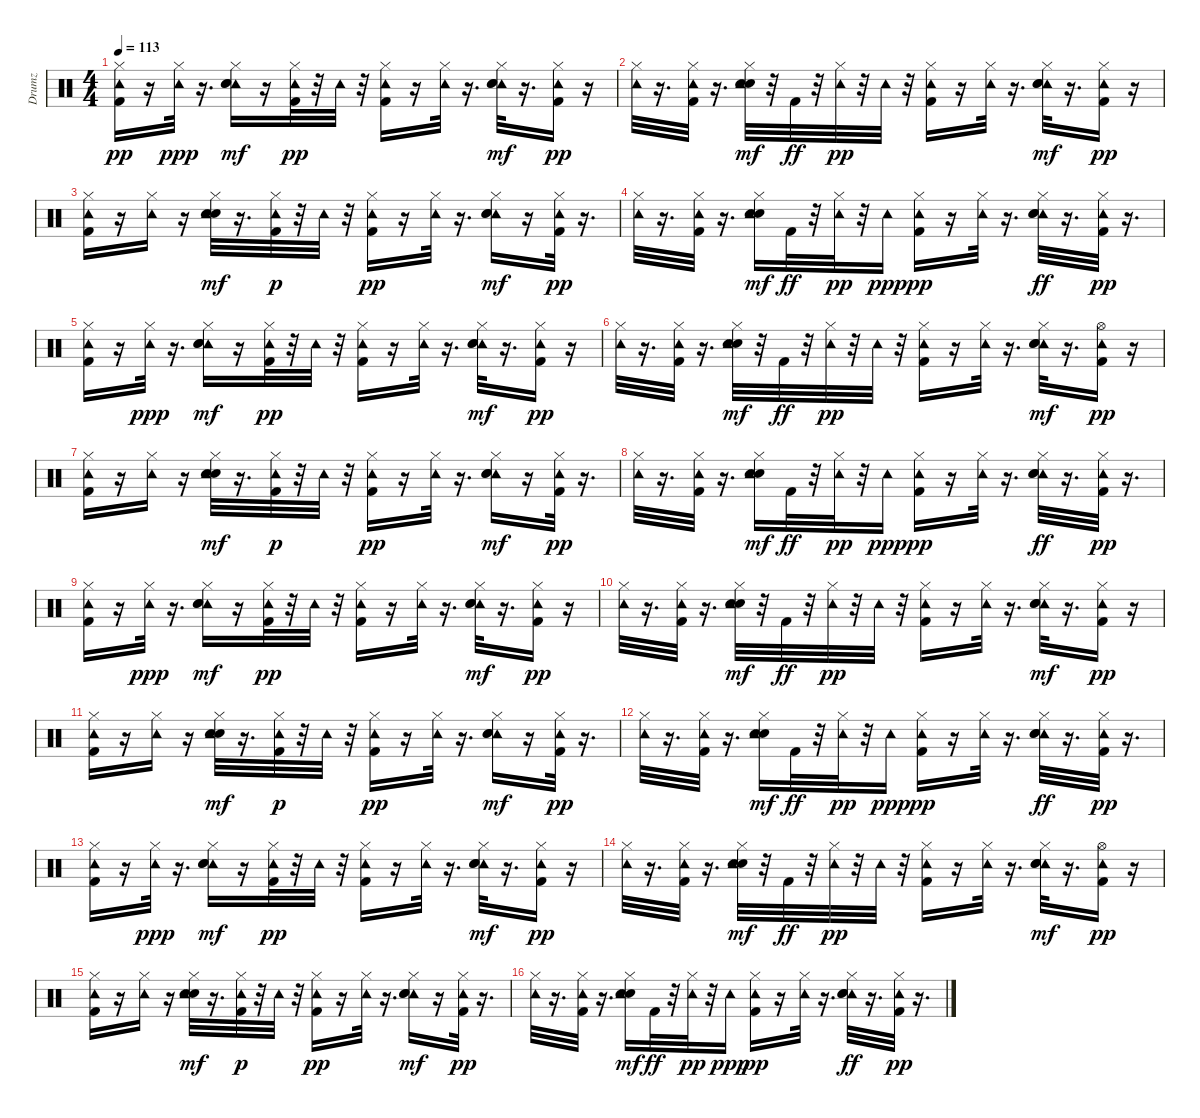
\track ("Drumz" "Drumz") {instrument percussion}
\staff {score}
\articulation defaults
\ts (4 4)
\tempo 113
\clef neutral
\ks c
("Hi-Hat (closed)" "Kick (hit) 2" "Tambourine (hit)").16{dy pp} r.16 ("Hi-Hat (closed)" "Tambourine (hit)").32{dy ppp} r.16{d} ("Tambourine (hit)" "Electric Snare (hit)" "Hi-Hat (closed)" "Hand Clap (hit)").16{dy mf} r.16 ("Kick (hit) 2" "Hi-Hat (closed)" "Tambourine (hit)").32{dy pp} r.32 "Tambourine (hit)".32 r.32 ("Kick (hit) 2" "Hi-Hat (closed)" "Tambourine (hit)").16 r.16 ("Hi-Hat (closed)" "Tambourine (hit)").32 r.16{d} ("Tambourine (hit)" "Electric Snare (hit)" "Hi-Hat (closed)" "Hand Clap (hit)").32{dy mf} r.16{d} ("Hi-Hat (closed)" "Kick (hit) 2" "Tambourine (hit)").16{dy pp} r.16 |
("Hi-Hat (closed)" "Tambourine (hit)").32 r.16{d} ("Kick (hit) 2" "Hi-Hat (closed)" "Tambourine (hit)").32 r.16{d} ("Hand Clap (hit)" "Electric Snare (hit)" "Hi-Hat (closed)" "Tambourine (hit)").32{dy mf} r.32 "Kick (hit) 2".32{dy ff} r.32 ("Hi-Hat (closed)" "Tambourine (hit)").32{dy pp} r.32 "Tambourine (hit)".32 r.32 ("Kick (hit) 2" "Hi-Hat (closed)" "Tambourine (hit)").16 r.16 ("Hi-Hat (closed)" "Tambourine (hit)").32 r.16{d} ("Tambourine (hit)" "Hand Clap (hit)" "Electric Snare (hit)" "Hi-Hat (closed)").32{dy mf} r.16{d} ("Kick (hit) 2" "Hi-Hat (closed)" "Tambourine (hit)").16{dy pp} r.16 |
("Hi-Hat (closed)" "Kick (hit) 2" "Tambourine (hit)").16 r.16 ("Hi-Hat (closed)" "Tambourine (hit)").16 r.16 ("Electric Snare (hit)" "Hand Clap (hit)" "Hi-Hat (closed)" "Tambourine (hit)").32{dy mf} r.16{d} ("Hi-Hat (closed)" "Kick (hit) 2" "Tambourine (hit)").32{dy p} r.32 "Tambourine (hit)".32 r.32 ("Kick (hit) 2" "Hi-Hat (closed)" "Tambourine (hit)").16{dy pp} r.16 ("Hi-Hat (closed)" "Tambourine (hit)").32 r.16{d} ("Tambourine (hit)" "Electric Snare (hit)" "Hi-Hat (closed)" "Hand Clap (hit)").16{dy mf} r.16 ("Hi-Hat (closed)" "Kick (hit) 2" "Tambourine (hit)").32{dy pp} r.16{d} |
("Hi-Hat (closed)" "Tambourine (hit)").32 r.16{d} ("Kick (hit) 2" "Hi-Hat (closed)" "Tambourine (hit)").32 r.16{d} ("Electric Snare (hit)" "Hand Clap (hit)" "Hi-Hat (closed)" "Tambourine (hit)").16{dy mf} "Kick (hit) 2".32{dy ff} r.32 ("Hi-Hat (closed)" "Tambourine (hit)").32{dy pp} r.32 "Tambourine (hit)".16{dy ppp} ("Hi-Hat (closed)" "Kick (hit) 2" "Tambourine (hit)").16{dy pp} r.16 ("Hi-Hat (closed)" "Tambourine (hit)").32 r.16{d} ("Tambourine (hit)" "Hi-Hat (closed)" "Hand Clap (hit)" "Electric Snare (hit)").32{dy ff} r.16{d} ("Hi-Hat (closed)" "Kick (hit) 2" "Tambourine (hit)").32{dy pp} r.16{d} |
("Hi-Hat (closed)" "Kick (hit) 2" "Tambourine (hit)").16 r.16 ("Hi-Hat (closed)" "Tambourine (hit)").32{dy ppp} r.16{d} ("Tambourine (hit)" "Electric Snare (hit)" "Hi-Hat (closed)" "Hand Clap (hit)").16{dy mf} r.16 ("Kick (hit) 2" "Hi-Hat (closed)" "Tambourine (hit)").32{dy pp} r.32 "Tambourine (hit)".32 r.32 ("Kick (hit) 2" "Hi-Hat (closed)" "Tambourine (hit)").16 r.16 ("Hi-Hat (closed)" "Tambourine (hit)").32 r.16{d} ("Tambourine (hit)" "Electric Snare (hit)" "Hi-Hat (closed)" "Hand Clap (hit)").32{dy mf} r.16{d} ("Hi-Hat (closed)" "Kick (hit) 2" "Tambourine (hit)").16{dy pp} r.16 |
("Hi-Hat (closed)" "Tambourine (hit)").32 r.16{d} ("Kick (hit) 2" "Hi-Hat (closed)" "Tambourine (hit)").32 r.16{d} ("Hand Clap (hit)" "Electric Snare (hit)" "Hi-Hat (closed)" "Tambourine (hit)").32{dy mf} r.32 "Kick (hit) 2".32{dy ff} r.32 ("Hi-Hat (closed)" "Tambourine (hit)").32{dy pp} r.32 "Tambourine (hit)".32 r.32 ("Kick (hit) 2" "Hi-Hat (closed)" "Tambourine (hit)").16 r.16 ("Hi-Hat (closed)" "Tambourine (hit)").32 r.16{d} ("Tambourine (hit)" "Hand Clap (hit)" "Electric Snare (hit)" "Hi-Hat (closed)").32{dy mf} r.16{d} ("Hi-Hat (open)" "Kick (hit) 2" "Tambourine (hit)").16{dy pp} r.16 |
("Hi-Hat (closed)" "Kick (hit) 2" "Tambourine (hit)").16 r.16 ("Hi-Hat (closed)" "Tambourine (hit)").16 r.16 ("Electric Snare (hit)" "Hand Clap (hit)" "Hi-Hat (closed)" "Tambourine (hit)").32{dy mf} r.16{d} ("Hi-Hat (closed)" "Kick (hit) 2" "Tambourine (hit)").32{dy p} r.32 "Tambourine (hit)".32 r.32 ("Kick (hit) 2" "Hi-Hat (closed)" "Tambourine (hit)").16{dy pp} r.16 ("Hi-Hat (closed)" "Tambourine (hit)").32 r.16{d} ("Tambourine (hit)" "Electric Snare (hit)" "Hi-Hat (closed)" "Hand Clap (hit)").16{dy mf} r.16 ("Hi-Hat (closed)" "Kick (hit) 2" "Tambourine (hit)").32{dy pp} r.16{d} |
("Hi-Hat (closed)" "Tambourine (hit)").32 r.16{d} ("Kick (hit) 2" "Hi-Hat (closed)" "Tambourine (hit)").32 r.16{d} ("Electric Snare (hit)" "Hand Clap (hit)" "Hi-Hat (closed)" "Tambourine (hit)").16{dy mf} "Kick (hit) 2".32{dy ff} r.32 ("Hi-Hat (closed)" "Tambourine (hit)").32{dy pp} r.32 "Tambourine (hit)".16{dy ppp} ("Hi-Hat (closed)" "Kick (hit) 2" "Tambourine (hit)").16{dy pp} r.16 ("Hi-Hat (closed)" "Tambourine (hit)").32 r.16{d} ("Tambourine (hit)" "Hi-Hat (closed)" "Hand Clap (hit)" "Electric Snare (hit)").32{dy ff} r.16{d} ("Hi-Hat (closed)" "Kick (hit) 2" "Tambourine (hit)").32{dy pp} r.16{d} |
("Hi-Hat (closed)" "Kick (hit) 2" "Tambourine (hit)").16 r.16 ("Hi-Hat (closed)" "Tambourine (hit)").32{dy ppp} r.16{d} ("Tambourine (hit)" "Electric Snare (hit)" "Hi-Hat (closed)" "Hand Clap (hit)").16{dy mf} r.16 ("Kick (hit) 2" "Hi-Hat (closed)" "Tambourine (hit)").32{dy pp} r.32 "Tambourine (hit)".32 r.32 ("Kick (hit) 2" "Hi-Hat (closed)" "Tambourine (hit)").16 r.16 ("Hi-Hat (closed)" "Tambourine (hit)").32 r.16{d} ("Tambourine (hit)" "Electric Snare (hit)" "Hi-Hat (closed)" "Hand Clap (hit)").32{dy mf} r.16{d} ("Hi-Hat (closed)" "Kick (hit) 2" "Tambourine (hit)").16{dy pp} r.16 |
("Hi-Hat (closed)" "Tambourine (hit)").32 r.16{d} ("Kick (hit) 2" "Hi-Hat (closed)" "Tambourine (hit)").32 r.16{d} ("Hand Clap (hit)" "Electric Snare (hit)" "Hi-Hat (closed)" "Tambourine (hit)").32{dy mf} r.32 "Kick (hit) 2".32{dy ff} r.32 ("Hi-Hat (closed)" "Tambourine (hit)").32{dy pp} r.32 "Tambourine (hit)".32 r.32 ("Kick (hit) 2" "Hi-Hat (closed)" "Tambourine (hit)").16 r.16 ("Hi-Hat (closed)" "Tambourine (hit)").32 r.16{d} ("Tambourine (hit)" "Hand Clap (hit)" "Electric Snare (hit)" "Hi-Hat (closed)").32{dy mf} r.16{d} ("Kick (hit) 2" "Hi-Hat (closed)" "Tambourine (hit)").16{dy pp} r.16 |
("Hi-Hat (closed)" "Kick (hit) 2" "Tambourine (hit)").16 r.16 ("Hi-Hat (closed)" "Tambourine (hit)").16 r.16 ("Electric Snare (hit)" "Hand Clap (hit)" "Hi-Hat (closed)" "Tambourine (hit)").32{dy mf} r.16{d} ("Hi-Hat (closed)" "Kick (hit) 2" "Tambourine (hit)").32{dy p} r.32 "Tambourine (hit)".32 r.32 ("Kick (hit) 2" "Hi-Hat (closed)" "Tambourine (hit)").16{dy pp} r.16 ("Hi-Hat (closed)" "Tambourine (hit)").32 r.16{d} ("Tambourine (hit)" "Electric Snare (hit)" "Hi-Hat (closed)" "Hand Clap (hit)").16{dy mf} r.16 ("Hi-Hat (closed)" "Kick (hit) 2" "Tambourine (hit)").32{dy pp} r.16{d} |
("Hi-Hat (closed)" "Tambourine (hit)").32 r.16{d} ("Kick (hit) 2" "Hi-Hat (closed)" "Tambourine (hit)").32 r.16{d} ("Electric Snare (hit)" "Hand Clap (hit)" "Hi-Hat (closed)" "Tambourine (hit)").16{dy mf} "Kick (hit) 2".32{dy ff} r.32 ("Hi-Hat (closed)" "Tambourine (hit)").32{dy pp} r.32 "Tambourine (hit)".16{dy ppp} ("Hi-Hat (closed)" "Kick (hit) 2" "Tambourine (hit)").16{dy pp} r.16 ("Hi-Hat (closed)" "Tambourine (hit)").32 r.16{d} ("Tambourine (hit)" "Hi-Hat (closed)" "Hand Clap (hit)" "Electric Snare (hit)").32{dy ff} r.16{d} ("Hi-Hat (closed)" "Kick (hit) 2" "Tambourine (hit)").32{dy pp} r.16{d} |
("Hi-Hat (closed)" "Kick (hit) 2" "Tambourine (hit)").16 r.16 ("Hi-Hat (closed)" "Tambourine (hit)").32{dy ppp} r.16{d} ("Tambourine (hit)" "Electric Snare (hit)" "Hi-Hat (closed)" "Hand Clap (hit)").16{dy mf} r.16 ("Kick (hit) 2" "Hi-Hat (closed)" "Tambourine (hit)").32{dy pp} r.32 "Tambourine (hit)".32 r.32 ("Kick (hit) 2" "Hi-Hat (closed)" "Tambourine (hit)").16 r.16 ("Hi-Hat (closed)" "Tambourine (hit)").32 r.16{d} ("Tambourine (hit)" "Electric Snare (hit)" "Hi-Hat (closed)" "Hand Clap (hit)").32{dy mf} r.16{d} ("Hi-Hat (closed)" "Kick (hit) 2" "Tambourine (hit)").16{dy pp} r.16 |
("Hi-Hat (closed)" "Tambourine (hit)").32 r.16{d} ("Kick (hit) 2" "Hi-Hat (closed)" "Tambourine (hit)").32 r.16{d} ("Hand Clap (hit)" "Electric Snare (hit)" "Hi-Hat (closed)" "Tambourine (hit)").32{dy mf} r.32 "Kick (hit) 2".32{dy ff} r.32 ("Hi-Hat (closed)" "Tambourine (hit)").32{dy pp} r.32 "Tambourine (hit)".32 r.32 ("Kick (hit) 2" "Hi-Hat (closed)" "Tambourine (hit)").16 r.16 ("Hi-Hat (closed)" "Tambourine (hit)").32 r.16{d} ("Tambourine (hit)" "Hand Clap (hit)" "Electric Snare (hit)" "Hi-Hat (closed)").32{dy mf} r.16{d} ("Hi-Hat (open)" "Kick (hit) 2" "Tambourine (hit)").16{dy pp} r.16 |
("Hi-Hat (closed)" "Kick (hit) 2" "Tambourine (hit)").16 r.16 ("Hi-Hat (closed)" "Tambourine (hit)").16 r.16 ("Electric Snare (hit)" "Hand Clap (hit)" "Hi-Hat (closed)" "Tambourine (hit)").32{dy mf} r.16{d} ("Hi-Hat (closed)" "Kick (hit) 2" "Tambourine (hit)").32{dy p} r.32 "Tambourine (hit)".32 r.32 ("Kick (hit) 2" "Hi-Hat (closed)" "Tambourine (hit)").16{dy pp} r.16 ("Hi-Hat (closed)" "Tambourine (hit)").32 r.16{d} ("Tambourine (hit)" "Electric Snare (hit)" "Hi-Hat (closed)" "Hand Clap (hit)").16{dy mf} r.16 ("Hi-Hat (closed)" "Kick (hit) 2" "Tambourine (hit)").32{dy pp} r.16{d} |
("Hi-Hat (closed)" "Tambourine (hit)").32 r.16{d} ("Kick (hit) 2" "Hi-Hat (closed)" "Tambourine (hit)").32 r.16{d} ("Electric Snare (hit)" "Hand Clap (hit)" "Hi-Hat (closed)" "Tambourine (hit)").16{dy mf} "Kick (hit) 2".32{dy ff} r.32 ("Hi-Hat (closed)" "Tambourine (hit)").32{dy pp} r.32 "Tambourine (hit)".16{dy ppp} ("Hi-Hat (closed)" "Kick (hit) 2" "Tambourine (hit)").16{dy pp} r.16 ("Hi-Hat (closed)" "Tambourine (hit)").32 r.16{d} ("Tambourine (hit)" "Hi-Hat (closed)" "Hand Clap (hit)" "Electric Snare (hit)").32{dy ff} r.16{d} ("Hi-Hat (closed)" "Kick (hit) 2" "Tambourine (hit)").32{dy pp} r.16{d}
